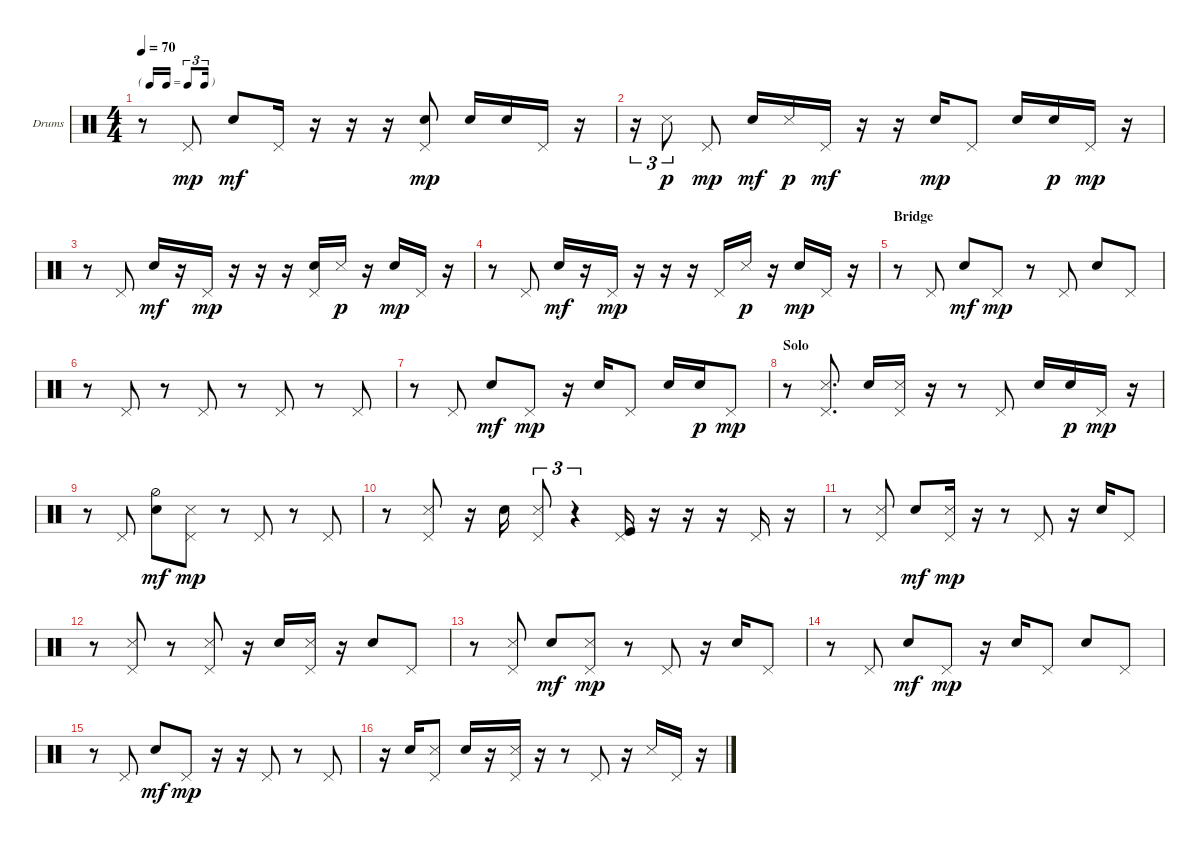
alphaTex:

\bracketExtendMode groupsimilarinstruments
\firstSystemTrackNameOrientation horizontal
\otherSystemsTrackNameOrientation horizontal
\track ("Snare" "Drums") {instrument percussion}
\staff {score}
\articulation defaults
\ts (4 4)
\tf triplet16th
\tempo 70
\clef neutral
\ks aminor
r.8{dy mp} "Pedal Hi-Hat (hit)".8 "Snare (hit) 2".8{dy mf} "Pedal Hi-Hat (hit)".16 r.16 r.16 r.16 ("Pedal Hi-Hat (hit)" "Snare (hit) 2").8{dy mp} "Snare (hit) 2".16 "Snare (hit) 2".16 "Pedal Hi-Hat (hit)".16 r.16 |
r.16{tu (3 2)} "Snare (side stick) 3".8{tu (3 2) dy p} "Pedal Hi-Hat (hit)".8{dy mp} "Snare (hit) 2".16{dy mf} "Snare (side stick) 3".16{dy p} "Pedal Hi-Hat (hit)".16{dy mf} r.16 r.16 "Snare (hit) 2".16{dy mp} "Pedal Hi-Hat (hit)".8 "Snare (hit) 2".16 "Snare (hit) 2".16{dy p} "Pedal Hi-Hat (hit)".16{dy mp} r.16 |
r.8 "Pedal Hi-Hat (hit)".8 "Snare (hit) 2".16{dy mf} r.16 "Pedal Hi-Hat (hit)".16{dy mp} r.16 r.16 r.16 ("Pedal Hi-Hat (hit)" "Snare (hit) 2").16 "Snare (side stick) 3".16{dy p} r.16 "Snare (hit) 2".16{dy mp} "Pedal Hi-Hat (hit)".16 r.16 |
r.8 "Pedal Hi-Hat (hit)".8 "Snare (hit) 2".16{dy mf} r.16 "Pedal Hi-Hat (hit)".16{dy mp} r.16 r.16 r.16 "Pedal Hi-Hat (hit)".16 "Snare (side stick) 3".16{dy p} r.16 "Snare (hit) 2".16{dy mp} "Pedal Hi-Hat (hit)".16 r.16 |
\section ("" "Bridge")
r.8 "Pedal Hi-Hat (hit)".8 "Snare (hit) 2".8{dy mf} "Pedal Hi-Hat (hit)".8{dy mp} r.8 "Pedal Hi-Hat (hit)".8 "Snare (hit) 2".8 "Pedal Hi-Hat (hit)".8 |
r.8 "Pedal Hi-Hat (hit)".8 r.8 "Pedal Hi-Hat (hit)".8 r.8 "Pedal Hi-Hat (hit)".8 r.8 "Pedal Hi-Hat (hit)".8 |
r.8 "Pedal Hi-Hat (hit)".8 "Snare (hit) 2".8{dy mf} "Pedal Hi-Hat (hit)".8{dy mp} r.16 "Snare (hit) 2".16 "Pedal Hi-Hat (hit)".8 "Snare (hit) 2".16 "Snare (hit) 2".16{dy p} "Pedal Hi-Hat (hit)".8{dy mp} |
\section ("" "Solo")
r.8 ("Pedal Hi-Hat (hit)" "Snare (side stick) 3").8{d} "Snare (hit) 2".16 ("Pedal Hi-Hat (hit)" "Snare (side stick) 3").16 r.16 r.8 "Pedal Hi-Hat (hit)".8 "Snare (hit) 2".16 "Snare (hit) 2".16{dy p} "Pedal Hi-Hat (hit)".16{dy mp} r.16 |
r.8 "Pedal Hi-Hat (hit)".8 ("Snare (hit) 2" "Hi-Hat (half)").8{dy mf} ("Pedal Hi-Hat (hit)" "Snare (side stick) 3").8{dy mp} r.8 "Pedal Hi-Hat (hit)".8 r.8 "Pedal Hi-Hat (hit)".8 |
r.8 ("Pedal Hi-Hat (hit)" "Snare (side stick) 3").8 r.16 "Snare (hit) 2".16 ("Pedal Hi-Hat (hit)" "Snare (side stick) 3").8{tu (3 2)} r.4{tu (3 2)} ("Kick (hit)" "Pedal Hi-Hat (hit)").16 r.16 r.16 r.16 "Pedal Hi-Hat (hit)".16 r.16 |
r.8 ("Pedal Hi-Hat (hit)" "Snare (side stick) 3").8 "Snare (hit) 2".8{dy mf} ("Pedal Hi-Hat (hit)" "Snare (side stick) 3").16{dy mp} r.16 r.8 "Pedal Hi-Hat (hit)".8 r.16 "Snare (hit) 2".16 "Pedal Hi-Hat (hit)".8 |
r.8 ("Pedal Hi-Hat (hit)" "Snare (side stick) 3").8 r.8 ("Pedal Hi-Hat (hit)" "Snare (side stick) 3").8 r.16 "Snare (hit) 2".16 ("Pedal Hi-Hat (hit)" "Snare (side stick) 3").16 r.16 "Snare (hit) 2".8 "Pedal Hi-Hat (hit)".8 |
r.8 ("Pedal Hi-Hat (hit)" "Snare (side stick) 3").8 "Snare (hit) 2".8{dy mf} ("Pedal Hi-Hat (hit)" "Snare (side stick) 3").8{dy mp} r.8 "Pedal Hi-Hat (hit)".8 r.16 "Snare (hit) 2".16 "Pedal Hi-Hat (hit)".8 |
r.8 "Pedal Hi-Hat (hit)".8 "Snare (hit) 2".8{dy mf} "Pedal Hi-Hat (hit)".8{dy mp} r.16 "Snare (hit) 2".16 "Pedal Hi-Hat (hit)".8 "Snare (hit) 2".8 "Pedal Hi-Hat (hit)".8 |
r.8 "Pedal Hi-Hat (hit)".8 "Snare (hit) 2".8{dy mf} "Pedal Hi-Hat (hit)".8{dy mp} r.16 r.16 "Pedal Hi-Hat (hit)".8 r.8 "Pedal Hi-Hat (hit)".8 |
r.16 "Snare (hit) 2".16 ("Pedal Hi-Hat (hit)" "Snare (side stick) 3").8 "Snare (hit) 2".16 r.16 ("Pedal Hi-Hat (hit)" "Snare (side stick) 3").16 r.16 r.8 "Pedal Hi-Hat (hit)".8 r.16 "Snare (side stick) 3".16 "Pedal Hi-Hat (hit)".16 r.16
